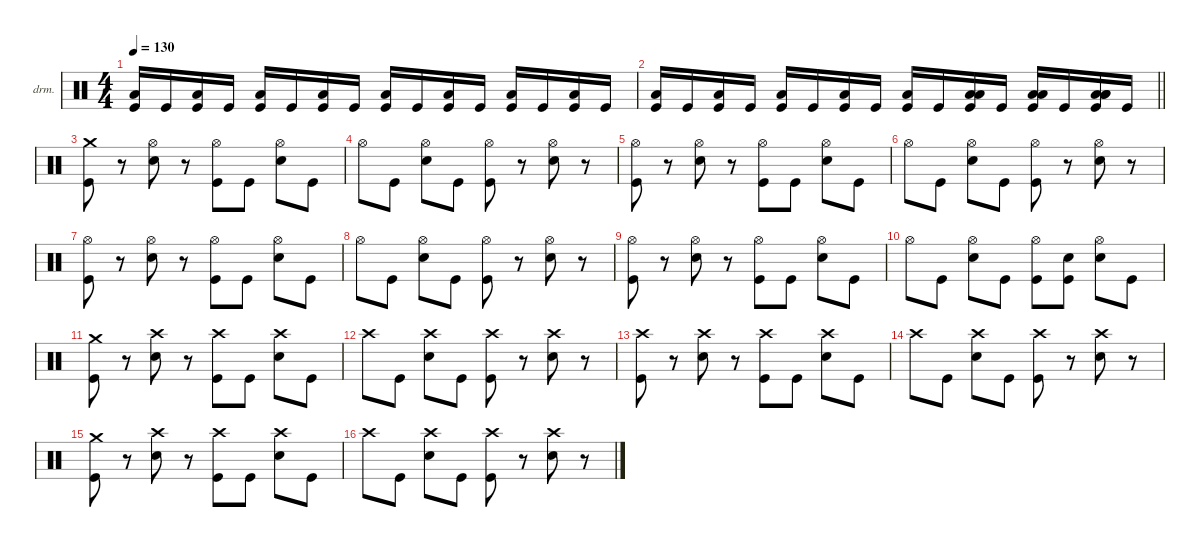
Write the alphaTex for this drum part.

\defaultSystemsLayout 4
\hideDynamics
\bracketExtendMode nobrackets
\firstSystemTrackNameOrientation horizontal
\otherSystemsTrackNameOrientation horizontal
\track ("Drums" "drm.") {instrument percussion}
\staff {score}
\articulation defaults
\ts (4 4)
\section ("" "")
\tempo 130
\clef neutral
\ks c
("Low Tom (hit)" "Kick (hit)").16{dy f} "Kick (hit)".16 ("Low Tom (hit)" "Kick (hit)").16 "Kick (hit)".16 ("Low Tom (hit)" "Kick (hit)").16 "Kick (hit)".16 ("Low Tom (hit)" "Kick (hit)").16 "Kick (hit)".16 ("Low Tom (hit)" "Kick (hit)").16 "Kick (hit)".16 ("Low Tom (hit)" "Kick (hit)").16 "Kick (hit)".16 ("Low Tom (hit)" "Kick (hit)").16 "Kick (hit)".16 ("Low Tom (hit)" "Kick (hit)").16 "Kick (hit)".16 |
\barLineRight lightlight
("Low Tom (hit)" "Kick (hit)").16 "Kick (hit)".16 ("Low Tom (hit)" "Kick (hit)").16 "Kick (hit)".16 ("Low Tom (hit)" "Kick (hit)").16 "Kick (hit)".16 ("Low Tom (hit)" "Kick (hit)").16 "Kick (hit)".16 ("Low Tom (hit)" "Kick (hit)").16 "Kick (hit)".16 ("Low Tom (hit)" "Low Tom (hit)" "Kick (hit)").16 "Kick (hit)".16 ("Low Tom (hit)" "Low Tom (hit)" "Kick (hit)").16 "Kick (hit)".16 ("Low Tom (hit)" "Low Tom (hit)" "Low Tom (hit)" "Kick (hit)").16 "Kick (hit)".16 |
\section ("" "")
("Crash medium (hit)" "Kick (hit)").8 r.8 ("Hi-Hat (open)" "Snare (hit) 2").8 r.8 ("Hi-Hat (open)" "Kick (hit)").8 "Kick (hit)".8 ("Hi-Hat (open)" "Snare (hit) 2").8 "Kick (hit)".8 |
"Hi-Hat (open)".8 "Kick (hit)".8 ("Hi-Hat (open)" "Snare (hit) 2").8 "Kick (hit)".8 ("Hi-Hat (open)" "Kick (hit)").8 r.8 ("Hi-Hat (open)" "Snare (hit) 2").8 r.8 |
("Hi-Hat (open)" "Kick (hit)").8 r.8 ("Hi-Hat (open)" "Snare (hit) 2").8 r.8 ("Hi-Hat (open)" "Kick (hit)").8 "Kick (hit)".8 ("Hi-Hat (open)" "Snare (hit) 2").8 "Kick (hit)".8 |
"Hi-Hat (open)".8 "Kick (hit)".8 ("Hi-Hat (open)" "Snare (hit) 2").8 "Kick (hit)".8 ("Hi-Hat (open)" "Kick (hit)").8 r.8 ("Hi-Hat (open)" "Snare (hit) 2").8 r.8 |
("Hi-Hat (open)" "Kick (hit)").8 r.8 ("Hi-Hat (open)" "Snare (hit) 2").8 r.8 ("Hi-Hat (open)" "Kick (hit)").8 "Kick (hit)".8 ("Hi-Hat (open)" "Snare (hit) 2").8 "Kick (hit)".8 |
"Hi-Hat (open)".8 "Kick (hit)".8 ("Hi-Hat (open)" "Snare (hit) 2").8 "Kick (hit)".8 ("Hi-Hat (open)" "Kick (hit)").8 r.8 ("Hi-Hat (open)" "Snare (hit) 2").8 r.8 |
("Hi-Hat (open)" "Kick (hit)").8 r.8 ("Hi-Hat (open)" "Snare (hit) 2").8 r.8 ("Hi-Hat (open)" "Kick (hit)").8 "Kick (hit)".8 ("Hi-Hat (open)" "Snare (hit) 2").8 "Kick (hit)".8 |
"Hi-Hat (open)".8 "Kick (hit)".8 ("Hi-Hat (open)" "Snare (hit) 2").8 "Kick (hit)".8 ("Hi-Hat (open)" "Kick (hit)").8 ("Snare (hit) 2" "Kick (hit)").8 ("Hi-Hat (open)" "Snare (hit) 2").8 "Kick (hit)".8 |
("Crash medium (hit)" "Kick (hit)").8 r.8 ("Crash high (hit)" "Snare (hit) 2").8 r.8 ("Crash high (hit)" "Kick (hit)").8 "Kick (hit)".8 ("Crash high (hit)" "Snare (hit) 2").8 "Kick (hit)".8 |
"Crash high (hit)".8 "Kick (hit)".8 ("Crash high (hit)" "Snare (hit) 2").8 "Kick (hit)".8 ("Crash high (hit)" "Kick (hit)").8 r.8 ("Crash high (hit)" "Snare (hit) 2").8 r.8 |
("Crash high (hit)" "Kick (hit)").8 r.8 ("Crash high (hit)" "Snare (hit) 2").8 r.8 ("Crash high (hit)" "Kick (hit)").8 "Kick (hit)".8 ("Crash high (hit)" "Snare (hit) 2").8 "Kick (hit)".8 |
"Crash high (hit)".8 "Kick (hit)".8 ("Crash high (hit)" "Snare (hit) 2").8 "Kick (hit)".8 ("Crash high (hit)" "Kick (hit)").8 r.8 ("Crash high (hit)" "Snare (hit) 2").8 r.8 |
("Crash medium (hit)" "Kick (hit)").8 r.8 ("Crash high (hit)" "Snare (hit) 2").8 r.8 ("Crash high (hit)" "Kick (hit)").8 "Kick (hit)".8 ("Crash high (hit)" "Snare (hit) 2").8 "Kick (hit)".8 |
"Crash high (hit)".8 "Kick (hit)".8 ("Crash high (hit)" "Snare (hit) 2").8 "Kick (hit)".8 ("Crash high (hit)" "Kick (hit)").8 r.8 ("Crash high (hit)" "Snare (hit) 2").8 r.8
